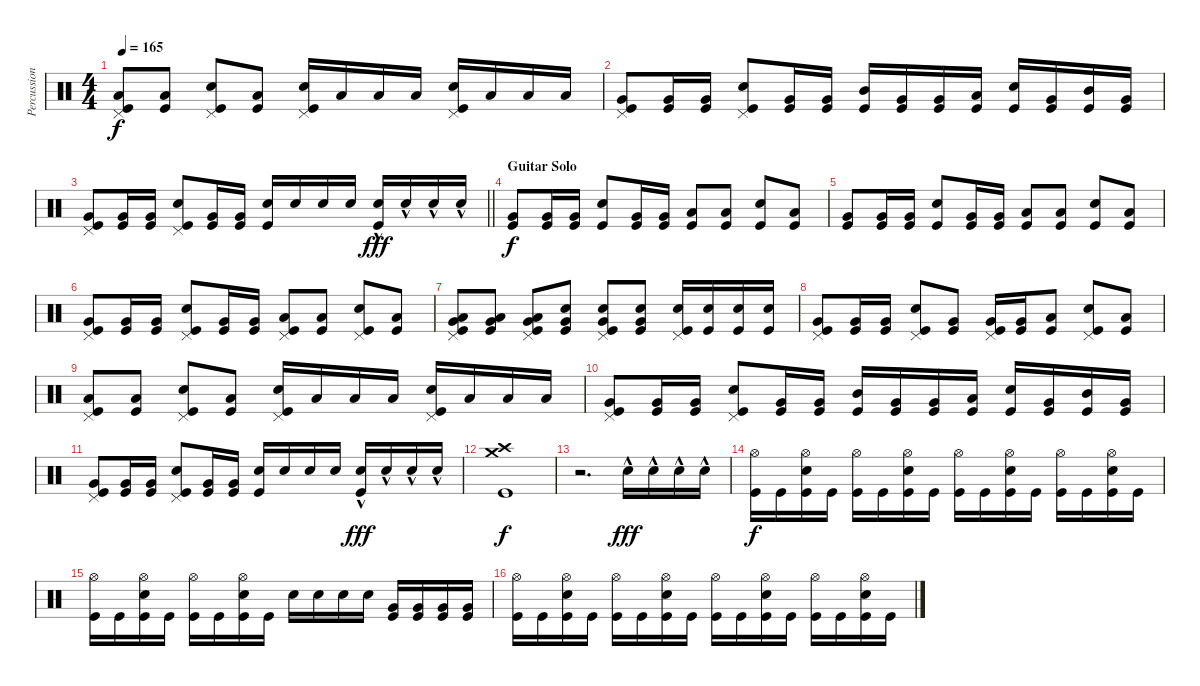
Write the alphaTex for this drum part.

\track ("Percussion (Aksu)" "Percussion") {instrument percussion}
\staff {score}
\articulation defaults
\ts (4 4)
\tempo 165
\clef neutral
\ks c
("Pedal Hi-Hat (hit)" "Low Floor Tom (hit)" "Kick (hit)").8{dy f} ("Low Floor Tom (hit)" "Kick (hit)").8 ("Pedal Hi-Hat (hit)" "Snare (hit) 2" "Kick (hit)").8 ("Low Floor Tom (hit)" "Kick (hit)").8 ("Pedal Hi-Hat (hit)" "Snare (hit) 2" "Kick (hit)").16 "Low Tom (hit)".16 "Low Tom (hit)".16 "Low Tom (hit)".16 ("Pedal Hi-Hat (hit)" "Snare (hit) 2" "Kick (hit)").16 "Low Tom (hit)".16 "Low Tom (hit)".16 "Low Tom (hit)".16 |
("Pedal Hi-Hat (hit)" "Very Low Tom (hit)" "Kick (hit)").8 ("Very Low Tom (hit)" "Kick (hit)").16 ("Very Low Tom (hit)" "Kick (hit)").16 ("Pedal Hi-Hat (hit)" "Snare (hit) 2" "Kick (hit)").8 ("Very Low Tom (hit)" "Kick (hit)").16 ("Very Low Tom (hit)" "Kick (hit)").16 ("Mid Tom (hit)" "Kick (hit)").16 ("Very Low Tom (hit)" "Kick (hit)").16 ("Very Low Tom (hit)" "Kick (hit)").16 ("Low Tom (hit)" "Kick (hit)").16 ("Snare (hit) 2" "Kick (hit)").16 ("Very Low Tom (hit)" "Kick (hit)").16 ("Mid Tom (hit)" "Kick (hit)").16 ("Very Low Tom (hit)" "Kick (hit)").16 |
\barLineRight lightlight
("Pedal Hi-Hat (hit)" "Very Low Tom (hit)" "Kick (hit)").8 ("Very Low Tom (hit)" "Kick (hit)").16 ("Very Low Tom (hit)" "Kick (hit)").16 ("Pedal Hi-Hat (hit)" "Snare (hit) 2" "Kick (hit)").8 ("Very Low Tom (hit)" "Kick (hit)").16 ("Very Low Tom (hit)" "Kick (hit)").16 ("Snare (hit) 2" "Kick (hit)").16{volume 6} "Snare (hit) 2".16{volume 13} "Snare (hit) 2".16 "Snare (hit) 2".16 ("Snare (hit) 2"{hac} "Kick (hit)").16{dy fff} "Snare (hit) 2"{hac}.16 "Snare (hit) 2"{hac}.16 "Snare (hit) 2"{hac}.16 |
\section ("" "Guitar Solo")
("Very Low Tom (hit)" "Kick (hit)").8{dy f volume 13} ("Very Low Tom (hit)" "Kick (hit)").16 ("Very Low Tom (hit)" "Kick (hit)").16 ("Snare (hit) 2" "Kick (hit)").8 ("Very Low Tom (hit)" "Kick (hit)").16 ("Very Low Tom (hit)" "Kick (hit)").16 ("Low Floor Tom (hit)" "Kick (hit)").8 ("Low Floor Tom (hit)" "Kick (hit)").8 ("Snare (hit) 2" "Kick (hit)").8 ("Low Tom (hit)" "Kick (hit)").8 |
("Very Low Tom (hit)" "Kick (hit)").8 ("Very Low Tom (hit)" "Kick (hit)").16 ("Very Low Tom (hit)" "Kick (hit)").16 ("Snare (hit) 2" "Kick (hit)").8 ("Very Low Tom (hit)" "Kick (hit)").16 ("Very Low Tom (hit)" "Kick (hit)").16 ("Low Floor Tom (hit)" "Kick (hit)").8 ("Low Floor Tom (hit)" "Kick (hit)").8 ("Snare (hit) 2" "Kick (hit)").8 ("Low Tom (hit)" "Kick (hit)").8 |
("Pedal Hi-Hat (hit)" "Very Low Tom (hit)" "Kick (hit)").8 ("Very Low Tom (hit)" "Kick (hit)").16 ("Very Low Tom (hit)" "Kick (hit)").16 ("Pedal Hi-Hat (hit)" "Snare (hit) 2" "Kick (hit)").8 ("Very Low Tom (hit)" "Kick (hit)").16 ("Very Low Tom (hit)" "Kick (hit)").16 ("Pedal Hi-Hat (hit)" "Low Floor Tom (hit)" "Kick (hit)").8 ("Low Floor Tom (hit)" "Kick (hit)").8 ("Pedal Hi-Hat (hit)" "Snare (hit) 2" "Kick (hit)").8 ("Low Tom (hit)" "Kick (hit)").8 |
("Pedal Hi-Hat (hit)" "Low Tom (hit)" "Very Low Tom (hit)" "Kick (hit)").8{volume 6} ("Low Tom (hit)" "Very Low Tom (hit)" "Kick (hit)").8{volume 16} ("Pedal Hi-Hat (hit)" "Low Tom (hit)" "Very Low Tom (hit)" "Kick (hit)").8 ("Very Low Tom (hit)" "Snare (hit) 2" "Kick (hit)").8 ("Pedal Hi-Hat (hit)" "Very Low Tom (hit)" "Snare (hit) 2" "Kick (hit)").8 ("Very Low Tom (hit)" "Snare (hit) 2" "Kick (hit)").8 ("Pedal Hi-Hat (hit)" "Snare (hit) 2" "Kick (hit)").16 ("Snare (hit) 2" "Kick (hit)").16 ("Snare (hit) 2" "Kick (hit)").16 ("Snare (hit) 2" "Kick (hit)").16 |
("Pedal Hi-Hat (hit)" "Very Low Tom (hit)" "Kick (hit)").8{volume 13} ("Very Low Tom (hit)" "Kick (hit)").16 ("Very Low Tom (hit)" "Kick (hit)").16 ("Pedal Hi-Hat (hit)" "Snare (hit) 2" "Kick (hit)").8 ("Very Low Tom (hit)" "Kick (hit)").8 ("Pedal Hi-Hat (hit)" "Very Low Tom (hit)" "Kick (hit)").16 ("Very Low Tom (hit)" "Kick (hit)").16 ("Low Floor Tom (hit)" "Kick (hit)").8 ("Pedal Hi-Hat (hit)" "Snare (hit) 2" "Kick (hit)").8 ("Low Tom (hit)" "Kick (hit)").8 |
("Pedal Hi-Hat (hit)" "Low Floor Tom (hit)" "Kick (hit)").8 ("Low Floor Tom (hit)" "Kick (hit)").8 ("Pedal Hi-Hat (hit)" "Snare (hit) 2" "Kick (hit)").8 ("Low Floor Tom (hit)" "Kick (hit)").8 ("Pedal Hi-Hat (hit)" "Snare (hit) 2" "Kick (hit)").16 "Low Tom (hit)".16 "Low Tom (hit)".16 "Low Tom (hit)".16 ("Pedal Hi-Hat (hit)" "Snare (hit) 2" "Kick (hit)").16 "Low Tom (hit)".16 "Low Tom (hit)".16 "Low Tom (hit)".16 |
("Pedal Hi-Hat (hit)" "Very Low Tom (hit)" "Kick (hit)").8 ("Very Low Tom (hit)" "Kick (hit)").16 ("Very Low Tom (hit)" "Kick (hit)").16 ("Pedal Hi-Hat (hit)" "Snare (hit) 2" "Kick (hit)").8 ("Very Low Tom (hit)" "Kick (hit)").16 ("Very Low Tom (hit)" "Kick (hit)").16 ("Mid Tom (hit)" "Kick (hit)").16 ("Very Low Tom (hit)" "Kick (hit)").16 ("Very Low Tom (hit)" "Kick (hit)").16 ("Low Tom (hit)" "Kick (hit)").16 ("Snare (hit) 2" "Kick (hit)").16 ("Very Low Tom (hit)" "Kick (hit)").16 ("Mid Tom (hit)" "Kick (hit)").16 ("Very Low Tom (hit)" "Kick (hit)").16 |
("Pedal Hi-Hat (hit)" "Very Low Tom (hit)" "Kick (hit)").8 ("Very Low Tom (hit)" "Kick (hit)").16 ("Very Low Tom (hit)" "Kick (hit)").16 ("Pedal Hi-Hat (hit)" "Snare (hit) 2" "Kick (hit)").8 ("Very Low Tom (hit)" "Kick (hit)").16 ("Very Low Tom (hit)" "Kick (hit)").16 ("Snare (hit) 2" "Kick (hit)").16{volume 6} "Snare (hit) 2".16{volume 13} "Snare (hit) 2".16 "Snare (hit) 2".16 ("Snare (hit) 2"{hac} "Kick (hit)").16{dy fff} "Snare (hit) 2"{hac}.16 "Snare (hit) 2"{hac}.16 "Snare (hit) 2"{hac}.16 |
("Crash medium (hit)" "Crash high (hit)" "Kick (hit)").1{dy f} |
r.2{d} "Snare (hit) 2"{hac}.16{dy fff} "Snare (hit) 2"{hac}.16 "Snare (hit) 2"{hac}.16 "Snare (hit) 2"{hac}.16 |
("Hi-Hat (open)" "Kick (hit)").16{dy f} "Kick (hit)".16 ("Hi-Hat (open)" "Snare (hit) 2" "Kick (hit)").16 "Kick (hit)".16 ("Hi-Hat (open)" "Kick (hit)").16 "Kick (hit)".16 ("Hi-Hat (open)" "Snare (hit) 2" "Kick (hit)").16 "Kick (hit)".16 ("Hi-Hat (open)" "Kick (hit)").16 "Kick (hit)".16 ("Hi-Hat (open)" "Snare (hit) 2" "Kick (hit)").16 "Kick (hit)".16 ("Hi-Hat (open)" "Kick (hit)").16 "Kick (hit)".16 ("Hi-Hat (open)" "Snare (hit) 2" "Kick (hit)").16 "Kick (hit)".16 |
("Hi-Hat (open)" "Kick (hit)").16 "Kick (hit)".16 ("Hi-Hat (open)" "Snare (hit) 2" "Kick (hit)").16 "Kick (hit)".16 ("Hi-Hat (open)" "Kick (hit)").16 "Kick (hit)".16 ("Hi-Hat (open)" "Snare (hit) 2" "Kick (hit)").16 "Kick (hit)".16 "Snare (hit) 2".16 "Snare (hit) 2".16 "Snare (hit) 2".16 "Snare (hit) 2".16 ("Very Low Tom (hit)" "Kick (hit)").16 ("Very Low Tom (hit)" "Kick (hit)").16 ("Very Low Tom (hit)" "Kick (hit)").16 ("Very Low Tom (hit)" "Kick (hit)").16 |
("Hi-Hat (open)" "Kick (hit)").16 "Kick (hit)".16 ("Hi-Hat (open)" "Snare (hit) 2" "Kick (hit)").16 "Kick (hit)".16 ("Hi-Hat (open)" "Kick (hit)").16 "Kick (hit)".16 ("Hi-Hat (open)" "Snare (hit) 2" "Kick (hit)").16 "Kick (hit)".16 ("Hi-Hat (open)" "Kick (hit)").16 "Kick (hit)".16 ("Hi-Hat (open)" "Snare (hit) 2" "Kick (hit)").16 "Kick (hit)".16 ("Hi-Hat (open)" "Kick (hit)").16 "Kick (hit)".16 ("Hi-Hat (open)" "Snare (hit) 2" "Kick (hit)").16 "Kick (hit)".16
